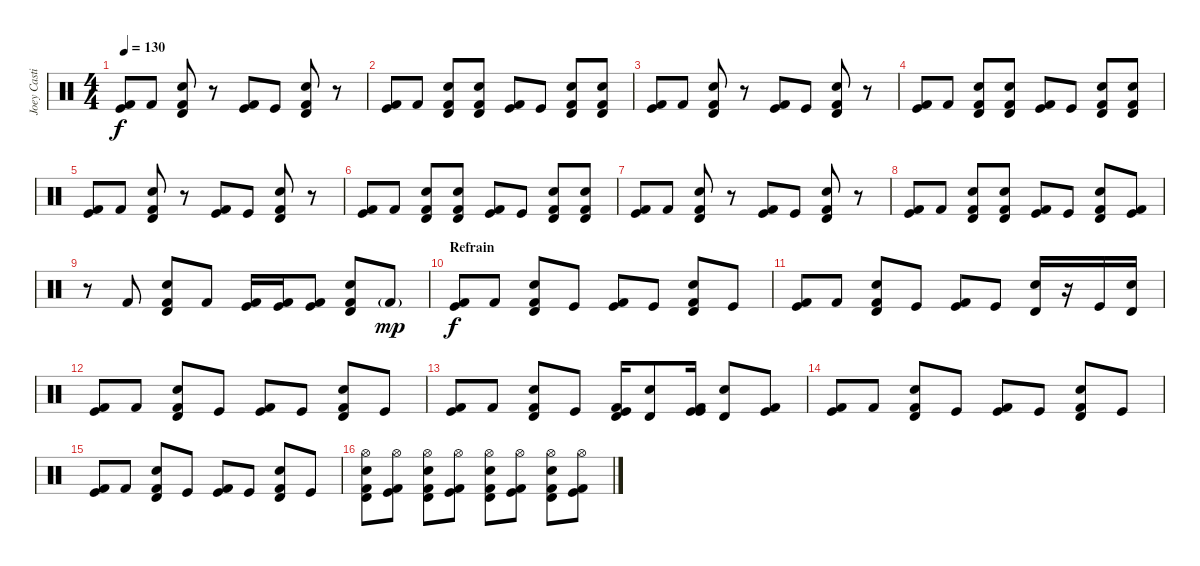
\track ("Joey Castillo  (Batterie)" "Joey Casti") {instrument percussion}
\staff {score}
\articulation defaults
\ts (4 4)
\tempo 130
\clef neutral
\ks c
("Kick (hit) 2" "Kick (hit)").8{dy f} "Kick (hit) 2".8 ("Kick (hit) 2" "Timbale high (hit)" "Electric Snare (hit)").8 r.8 ("Kick (hit) 2" "Kick (hit)").8 "Kick (hit)".8 ("Kick (hit) 2" "Timbale high (hit)" "Electric Snare (hit)").8 r.8 |
("Kick (hit) 2" "Kick (hit)").8 "Kick (hit) 2".8 ("Kick (hit) 2" "Timbale high (hit)" "Electric Snare (hit)").8 ("Kick (hit) 2" "Timbale high (hit)" "Electric Snare (hit)").8 ("Kick (hit) 2" "Kick (hit)").8 "Kick (hit)".8 ("Kick (hit) 2" "Timbale high (hit)" "Electric Snare (hit)").8 ("Kick (hit) 2" "Timbale high (hit)" "Electric Snare (hit)").8 |
("Kick (hit) 2" "Kick (hit)").8 "Kick (hit) 2".8 ("Kick (hit) 2" "Timbale high (hit)" "Electric Snare (hit)").8 r.8 ("Kick (hit) 2" "Kick (hit)").8 "Kick (hit)".8 ("Kick (hit) 2" "Timbale high (hit)" "Electric Snare (hit)").8 r.8 |
("Kick (hit) 2" "Kick (hit)").8 "Kick (hit) 2".8 ("Kick (hit) 2" "Timbale high (hit)" "Electric Snare (hit)").8 ("Kick (hit) 2" "Timbale high (hit)" "Electric Snare (hit)").8 ("Kick (hit) 2" "Kick (hit)").8 "Kick (hit)".8 ("Kick (hit) 2" "Timbale high (hit)" "Electric Snare (hit)").8 ("Kick (hit) 2" "Timbale high (hit)" "Electric Snare (hit)").8 |
("Kick (hit) 2" "Kick (hit)").8 "Kick (hit) 2".8 ("Kick (hit) 2" "Timbale high (hit)" "Electric Snare (hit)").8 r.8 ("Kick (hit) 2" "Kick (hit)").8 "Kick (hit)".8 ("Kick (hit) 2" "Timbale high (hit)" "Electric Snare (hit)").8 r.8 |
("Kick (hit) 2" "Kick (hit)").8 "Kick (hit) 2".8 ("Kick (hit) 2" "Timbale high (hit)" "Electric Snare (hit)").8 ("Kick (hit) 2" "Timbale high (hit)" "Electric Snare (hit)").8 ("Kick (hit) 2" "Kick (hit)").8 "Kick (hit)".8 ("Kick (hit) 2" "Timbale high (hit)" "Electric Snare (hit)").8 ("Kick (hit) 2" "Timbale high (hit)" "Electric Snare (hit)").8 |
("Kick (hit) 2" "Kick (hit)").8 "Kick (hit) 2".8 ("Kick (hit) 2" "Timbale high (hit)" "Electric Snare (hit)").8 r.8 ("Kick (hit) 2" "Kick (hit)").8 "Kick (hit)".8 ("Kick (hit) 2" "Timbale high (hit)" "Electric Snare (hit)").8 r.8 |
("Kick (hit) 2" "Kick (hit)").8 "Kick (hit) 2".8 ("Kick (hit) 2" "Timbale high (hit)" "Electric Snare (hit)").8 ("Kick (hit) 2" "Timbale high (hit)" "Electric Snare (hit)").8 ("Kick (hit) 2" "Kick (hit)").8 "Kick (hit)".8 ("Kick (hit) 2" "Timbale high (hit)" "Electric Snare (hit)").8 ("Kick (hit) 2" "Kick (hit)").8 |
r.8 "Kick (hit) 2".8{volume 14} ("Kick (hit) 2" "Timbale high (hit)" "Electric Snare (hit)").8 "Kick (hit) 2".8 ("Kick (hit)" "Kick (hit) 2").16 ("Kick (hit)" "Kick (hit) 2").16 ("Kick (hit)" "Kick (hit) 2").8 ("Kick (hit) 2" "Timbale high (hit)" "Electric Snare (hit)").8 "Kick (hit) 2"{g}.8{dy mp} |
\section ("" "Refrain")
("Kick (hit) 2" "Kick (hit)").8{dy f} "Kick (hit) 2".8 ("Kick (hit) 2" "Timbale high (hit)" "Electric Snare (hit)").8 "Kick (hit)".8 ("Kick (hit) 2" "Kick (hit)").8 "Kick (hit)".8 ("Kick (hit) 2" "Timbale high (hit)" "Electric Snare (hit)").8 "Kick (hit)".8 |
("Kick (hit) 2" "Kick (hit)").8 "Kick (hit) 2".8 ("Kick (hit) 2" "Timbale high (hit)" "Electric Snare (hit)").8 "Kick (hit)".8 ("Kick (hit) 2" "Kick (hit)").8 "Kick (hit)".8 ("Timbale high (hit)" "Electric Snare (hit)").16 r.16 "Kick (hit)".16 ("Timbale high (hit)" "Electric Snare (hit)").16 |
("Kick (hit) 2" "Kick (hit)").8 "Kick (hit) 2".8 ("Kick (hit) 2" "Timbale high (hit)" "Electric Snare (hit)").8 "Kick (hit)".8 ("Kick (hit) 2" "Kick (hit)").8 "Kick (hit)".8 ("Kick (hit) 2" "Timbale high (hit)" "Electric Snare (hit)").8 "Kick (hit)".8 |
("Kick (hit) 2" "Kick (hit)").8 "Kick (hit) 2".8 ("Kick (hit) 2" "Timbale high (hit)" "Electric Snare (hit)").8 "Kick (hit)".8 ("Timbale high (hit)" "Kick (hit)" "Kick (hit) 2").16 ("Timbale high (hit)" "Electric Snare (hit)").8 ("Kick (hit)" "Kick (hit)" "Kick (hit) 2").16 ("Timbale high (hit)" "Electric Snare (hit)").8 ("Kick (hit) 2" "Kick (hit)").8 |
("Kick (hit) 2" "Kick (hit)").8 "Kick (hit) 2".8 ("Kick (hit) 2" "Timbale high (hit)" "Electric Snare (hit)").8 "Kick (hit)".8 ("Kick (hit) 2" "Kick (hit)").8 "Kick (hit)".8 ("Kick (hit) 2" "Timbale high (hit)" "Electric Snare (hit)").8 "Kick (hit)".8 |
("Kick (hit) 2" "Kick (hit)").8 "Kick (hit) 2".8 ("Kick (hit) 2" "Timbale high (hit)" "Electric Snare (hit)").8 "Kick (hit)".8 ("Kick (hit) 2" "Kick (hit)").8 "Kick (hit)".8 ("Kick (hit) 2" "Timbale high (hit)" "Electric Snare (hit)").8 "Kick (hit)".8 |
("Timbale high (hit)" "Electric Snare (hit)" "Kick (hit) 2" "Hi-Hat (open)").8 ("Kick (hit)" "Kick (hit) 2" "Hi-Hat (open)").8 ("Timbale high (hit)" "Electric Snare (hit)" "Kick (hit) 2" "Hi-Hat (open)").8 ("Kick (hit)" "Kick (hit) 2" "Hi-Hat (open)").8 ("Timbale high (hit)" "Electric Snare (hit)" "Kick (hit) 2" "Hi-Hat (open)").8 ("Kick (hit)" "Kick (hit) 2" "Hi-Hat (open)").8 ("Timbale high (hit)" "Electric Snare (hit)" "Kick (hit) 2" "Hi-Hat (open)").8 ("Kick (hit)" "Kick (hit) 2" "Hi-Hat (open)").8
